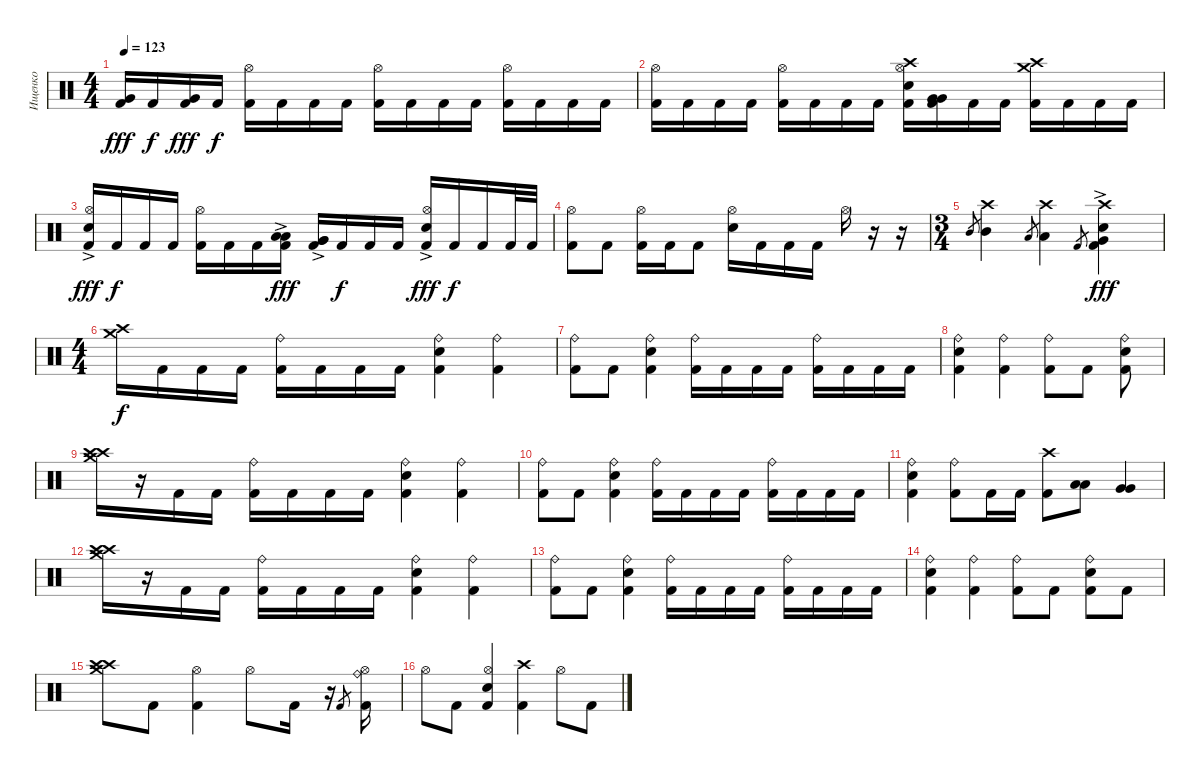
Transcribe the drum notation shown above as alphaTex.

\track ("Ищенко" "Ищенко") {instrument percussion}
\staff {score}
\articulation defaults
\ts (4 4)
\tempo 123
\clef neutral
\ks c
("Very Low Tom (hit)" "Kick (hit) 2").16{dy fff} "Kick (hit) 2".16{dy f} ("Very Low Tom (hit)" "Kick (hit) 2").16{dy fff} "Kick (hit) 2".16{dy f} ("Hi-Hat (open)" "Kick (hit) 2").16 "Kick (hit) 2".16 "Kick (hit) 2".16 "Kick (hit) 2".16 ("Hi-Hat (open)" "Kick (hit) 2").16 "Kick (hit) 2".16 "Kick (hit) 2".16 "Kick (hit) 2".16 ("Hi-Hat (open)" "Kick (hit) 2").16 "Kick (hit) 2".16 "Kick (hit) 2".16 "Kick (hit) 2".16 |
("Hi-Hat (open)" "Kick (hit) 2").16 "Kick (hit) 2".16 "Kick (hit) 2".16 "Kick (hit) 2".16 ("Hi-Hat (open)" "Kick (hit) 2").16 "Kick (hit) 2".16 "Kick (hit) 2".16 "Kick (hit) 2".16 ("Electric Snare (hit)" "Hi-Hat (open)" "Crash high (hit)" "Kick (hit) 2").16 ("Kick (hit) 2" "Very Low Tom (hit)" "Very Low Tom (hit)").16 "Kick (hit) 2".16 "Kick (hit) 2".16 ("Crash medium (hit)" "Crash high (hit)" "Kick (hit) 2").16 "Kick (hit) 2".16 "Kick (hit) 2".16 "Kick (hit) 2".16 |
("Electric Snare (hit)"{ac} "Hi-Hat (open)" "Kick (hit) 2").16{dy fff} "Kick (hit) 2".16{dy f} "Kick (hit) 2".16 "Kick (hit) 2".16 ("Hi-Hat (open)" "Kick (hit) 2").16 "Kick (hit) 2".16 "Kick (hit) 2".16 ("Low Tom (hit)"{ac} "Low Tom (hit)"{ac} "Kick (hit) 2").16{dy fff} ("Very Low Tom (hit)"{ac} "Very Low Tom (hit)"{ac} "Kick (hit) 2").16 "Kick (hit) 2".16{dy f} "Kick (hit) 2".16 "Kick (hit) 2".16 ("Hi-Hat (open)" "Electric Snare (hit)"{ac} "Kick (hit) 2").16{dy fff} "Kick (hit) 2".16{dy f} "Kick (hit) 2".16 "Kick (hit) 2".32 "Kick (hit) 2".32 |
("Hi-Hat (open)" "Kick (hit) 2").8 "Kick (hit) 2".8 ("Hi-Hat (open)" "Kick (hit) 2").16 "Kick (hit) 2".16 "Kick (hit) 2".8 ("Hi-Hat (open)" "Electric Snare (hit)").16 "Kick (hit) 2".16 "Kick (hit) 2".16 "Kick (hit) 2".16 "Hi-Hat (open)".16 r.16 r.16 |
\ts (3 4)
"Mid Tom (hit)".8{gr} ("Crash high (hit)" "Mid Tom (hit)").4 "Low Tom (hit)".8{gr} ("Crash high (hit)" "Low Tom (hit)").4 "Kick (hit) 2".8{gr} ("Crash high (hit)" "Kick (hit) 2" "Very Low Tom (hit)" "Electric Snare (hit)"{ac}).4{dy fff} |
\ts (4 4)
("Crash medium (hit)" "Crash high (hit)").16{dy f} "Kick (hit) 2".16 "Kick (hit) 2".16 "Kick (hit) 2".16 ("Ride (bell)" "Kick (hit) 2").16 "Kick (hit) 2".16 "Kick (hit) 2".16 "Kick (hit) 2".16 ("Electric Snare (hit)" "Kick (hit) 2" "Ride (bell)").4 ("Ride (bell)" "Kick (hit) 2").4 |
("Ride (bell)" "Kick (hit) 2").8 "Kick (hit) 2".8 ("Electric Snare (hit)" "Kick (hit) 2" "Ride (bell)").4 ("Ride (bell)" "Kick (hit) 2").16 "Kick (hit) 2".16 "Kick (hit) 2".16 "Kick (hit) 2".16 ("Ride (bell)" "Kick (hit) 2").16 "Kick (hit) 2".16 "Kick (hit) 2".16 "Kick (hit) 2".16 |
("Electric Snare (hit)" "Kick (hit) 2" "Ride (bell)").4 ("Ride (bell)" "Kick (hit) 2").4 ("Ride (bell)" "Kick (hit) 2").8 "Kick (hit) 2".8 ("Electric Snare (hit)" "Kick (hit) 2" "Ride (bell)").8 |
("Crash medium (hit)" "Crash high (hit)" "Crash high (hit)").16 r.16 "Kick (hit) 2".16 "Kick (hit) 2".16 ("Ride (bell)" "Kick (hit) 2").16 "Kick (hit) 2".16 "Kick (hit) 2".16 "Kick (hit) 2".16 ("Electric Snare (hit)" "Kick (hit) 2" "Ride (bell)").4 ("Ride (bell)" "Kick (hit) 2").4 |
("Ride (bell)" "Kick (hit) 2").8 "Kick (hit) 2".8 ("Electric Snare (hit)" "Kick (hit) 2" "Ride (bell)").4 ("Ride (bell)" "Kick (hit) 2").16 "Kick (hit) 2".16 "Kick (hit) 2".16 "Kick (hit) 2".16 ("Ride (bell)" "Kick (hit) 2").16 "Kick (hit) 2".16 "Kick (hit) 2".16 "Kick (hit) 2".16 |
("Electric Snare (hit)" "Kick (hit) 2" "Ride (bell)").4 ("Kick (hit) 2" "Ride (bell)").8 "Kick (hit) 2".16 "Kick (hit) 2".16 ("Crash high (hit)" "Kick (hit) 2").8 ("Low Tom (hit)" "Low Tom (hit)").8 ("Very Low Tom (hit)" "Very Low Tom (hit)").4 |
("Crash medium (hit)" "Crash high (hit)" "Crash high (hit)").16 r.16 "Kick (hit) 2".16 "Kick (hit) 2".16 ("Ride (bell)" "Kick (hit) 2").16 "Kick (hit) 2".16 "Kick (hit) 2".16 "Kick (hit) 2".16 ("Electric Snare (hit)" "Kick (hit) 2" "Ride (bell)").4 ("Ride (bell)" "Kick (hit) 2").4 |
("Ride (bell)" "Kick (hit) 2").8 "Kick (hit) 2".8 ("Electric Snare (hit)" "Kick (hit) 2" "Ride (bell)").4 ("Ride (bell)" "Kick (hit) 2").16 "Kick (hit) 2".16 "Kick (hit) 2".16 "Kick (hit) 2".16 ("Ride (bell)" "Kick (hit) 2").16 "Kick (hit) 2".16 "Kick (hit) 2".16 "Kick (hit) 2".16 |
("Electric Snare (hit)" "Kick (hit) 2" "Ride (bell)").4 ("Ride (bell)" "Kick (hit) 2").4 ("Ride (bell)" "Kick (hit) 2").8 "Kick (hit) 2".8 ("Electric Snare (hit)" "Kick (hit) 2" "Ride (bell)").8 "Kick (hit) 2".8 |
("Crash medium (hit)" "Crash high (hit)" "Crash high (hit)").8 "Kick (hit) 2".8 ("Hi-Hat (open)" "Kick (hit) 2").4 "Hi-Hat (open)".8 "Kick (hit) 2".16 r.16 "Kick (hit) 2".8{gr} ("Hi-Hat (open)" "Kick (hit) 2" "Ride (bell)").16 |
"Hi-Hat (open)".8 "Kick (hit) 2".8 ("Kick (hit) 2" "Electric Snare (hit)" "Hi-Hat (open)").4 ("Crash high (hit)" "Kick (hit) 2").4 "Hi-Hat (open)".8 "Kick (hit) 2".8
